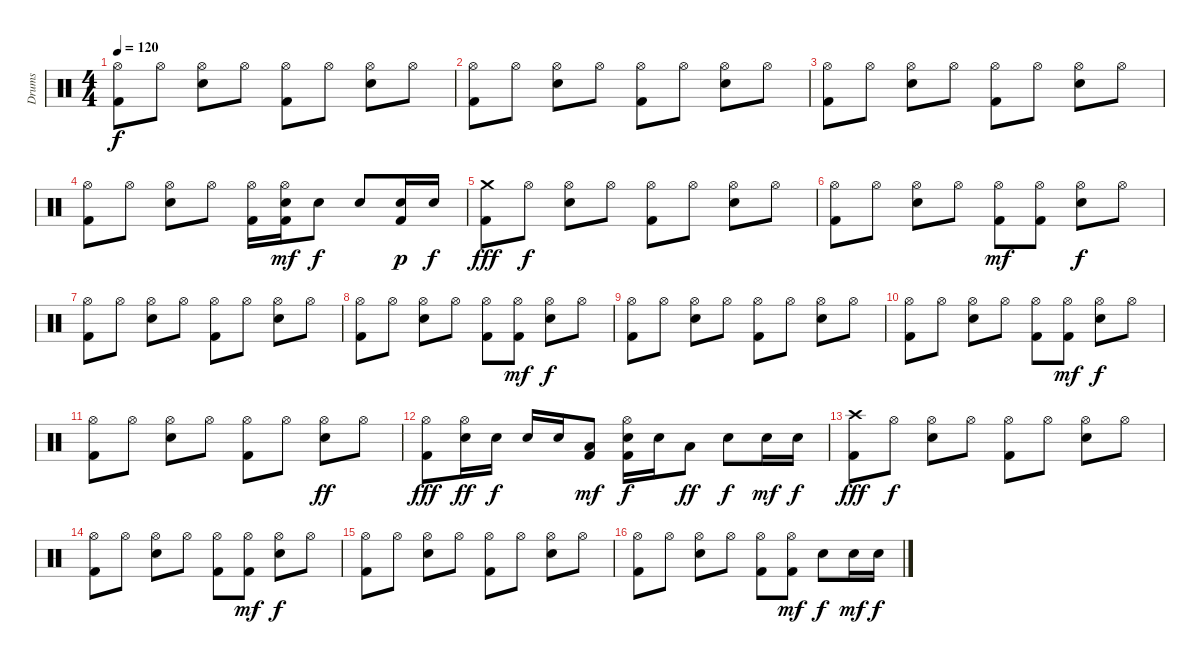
\track ("Drums" "Drums") {instrument percussion}
\staff {score}
\articulation defaults
\ts (4 4)
\tempo 120
\clef neutral
\ks c
("Hi-Hat (open)" "Kick (hit) 2").8{dy f} "Hi-Hat (open)".8 ("Hi-Hat (open)" "Electric Snare (hit)").8 "Hi-Hat (open)".8 ("Hi-Hat (open)" "Kick (hit) 2").8 "Hi-Hat (open)".8 ("Hi-Hat (open)" "Electric Snare (hit)").8 "Hi-Hat (open)".8 |
("Hi-Hat (open)" "Kick (hit) 2").8 "Hi-Hat (open)".8 ("Hi-Hat (open)" "Electric Snare (hit)").8 "Hi-Hat (open)".8 ("Hi-Hat (open)" "Kick (hit) 2").8 "Hi-Hat (open)".8 ("Hi-Hat (open)" "Electric Snare (hit)").8 "Hi-Hat (open)".8 |
("Hi-Hat (open)" "Kick (hit) 2").8 "Hi-Hat (open)".8 ("Hi-Hat (open)" "Electric Snare (hit)").8 "Hi-Hat (open)".8 ("Hi-Hat (open)" "Kick (hit) 2").8 "Hi-Hat (open)".8 ("Hi-Hat (open)" "Electric Snare (hit)").8 "Hi-Hat (open)".8 |
("Hi-Hat (open)" "Kick (hit) 2").8 "Hi-Hat (open)".8 ("Hi-Hat (open)" "Electric Snare (hit)").8 "Hi-Hat (open)".8 ("Hi-Hat (open)" "Kick (hit) 2").16 ("Hi-Hat (open)" "Electric Snare (hit)" "Kick (hit) 2").16{dy mf} "Electric Snare (hit)".8{dy f} "Electric Snare (hit)".8 ("Electric Snare (hit)" "Kick (hit) 2").16{dy p} "Electric Snare (hit)".16{dy f} |
("Crash medium (hit)" "Kick (hit) 2").8{dy fff} "Hi-Hat (open)".8{dy f} ("Hi-Hat (open)" "Electric Snare (hit)").8 "Hi-Hat (open)".8 ("Hi-Hat (open)" "Kick (hit) 2").8 "Hi-Hat (open)".8 ("Hi-Hat (open)" "Electric Snare (hit)").8 "Hi-Hat (open)".8 |
("Hi-Hat (open)" "Kick (hit) 2").8 "Hi-Hat (open)".8 ("Hi-Hat (open)" "Electric Snare (hit)").8 "Hi-Hat (open)".8 ("Hi-Hat (open)" "Kick (hit) 2").8{dy mf} ("Hi-Hat (open)" "Kick (hit) 2").8 ("Hi-Hat (open)" "Electric Snare (hit)").8{dy f} "Hi-Hat (open)".8 |
("Hi-Hat (open)" "Kick (hit) 2").8 "Hi-Hat (open)".8 ("Hi-Hat (open)" "Electric Snare (hit)").8 "Hi-Hat (open)".8 ("Hi-Hat (open)" "Kick (hit) 2").8 "Hi-Hat (open)".8 ("Hi-Hat (open)" "Electric Snare (hit)").8 "Hi-Hat (open)".8 |
("Hi-Hat (open)" "Kick (hit) 2").8 "Hi-Hat (open)".8 ("Hi-Hat (open)" "Electric Snare (hit)").8 "Hi-Hat (open)".8 ("Hi-Hat (open)" "Kick (hit) 2").8 ("Hi-Hat (open)" "Kick (hit) 2").8{dy mf} ("Hi-Hat (open)" "Electric Snare (hit)").8{dy f} "Hi-Hat (open)".8 |
("Hi-Hat (open)" "Kick (hit) 2").8 "Hi-Hat (open)".8 ("Hi-Hat (open)" "Electric Snare (hit)").8 "Hi-Hat (open)".8 ("Hi-Hat (open)" "Kick (hit) 2").8 "Hi-Hat (open)".8 ("Hi-Hat (open)" "Electric Snare (hit)").8 "Hi-Hat (open)".8 |
("Hi-Hat (open)" "Kick (hit) 2").8 "Hi-Hat (open)".8 ("Hi-Hat (open)" "Electric Snare (hit)").8 "Hi-Hat (open)".8 ("Hi-Hat (open)" "Kick (hit) 2").8 ("Hi-Hat (open)" "Kick (hit) 2").8{dy mf} ("Hi-Hat (open)" "Electric Snare (hit)").8{dy f} "Hi-Hat (open)".8 |
("Hi-Hat (open)" "Kick (hit) 2").8 "Hi-Hat (open)".8 ("Hi-Hat (open)" "Electric Snare (hit)").8 "Hi-Hat (open)".8 ("Hi-Hat (open)" "Kick (hit) 2").8 "Hi-Hat (open)".8 ("Hi-Hat (open)" "Electric Snare (hit)").8{dy ff} "Hi-Hat (open)".8 |
("Hi-Hat (open)" "Kick (hit) 2").8{dy fff} ("Hi-Hat (open)" "Electric Snare (hit)").16{dy ff} "Electric Snare (hit)".16{dy f} "Electric Snare (hit)".16 "Electric Snare (hit)".16 ("Low Tom (hit)" "Kick (hit) 2").8{dy mf} ("Hi-Hat (open)" "Electric Snare (hit)" "Kick (hit) 2").16{dy f} "Electric Snare (hit)".16 "Low Tom (hit)".8{dy ff} "Electric Snare (hit)".8{dy f} "Electric Snare (hit)".16{dy mf} "Electric Snare (hit)".16{dy f} |
("Crash high (hit)" "Kick (hit) 2").8{dy fff} "Hi-Hat (open)".8{dy f} ("Hi-Hat (open)" "Electric Snare (hit)").8 "Hi-Hat (open)".8 ("Hi-Hat (open)" "Kick (hit) 2").8 "Hi-Hat (open)".8 ("Hi-Hat (open)" "Electric Snare (hit)").8 "Hi-Hat (open)".8 |
("Hi-Hat (open)" "Kick (hit) 2").8 "Hi-Hat (open)".8 ("Hi-Hat (open)" "Electric Snare (hit)").8 "Hi-Hat (open)".8 ("Hi-Hat (open)" "Kick (hit) 2").8 ("Hi-Hat (open)" "Kick (hit) 2").8{dy mf} ("Hi-Hat (open)" "Electric Snare (hit)").8{dy f} "Hi-Hat (open)".8 |
("Hi-Hat (open)" "Kick (hit) 2").8 "Hi-Hat (open)".8 ("Hi-Hat (open)" "Electric Snare (hit)").8 "Hi-Hat (open)".8 ("Hi-Hat (open)" "Kick (hit) 2").8 "Hi-Hat (open)".8 ("Hi-Hat (open)" "Electric Snare (hit)").8 "Hi-Hat (open)".8 |
("Hi-Hat (open)" "Kick (hit) 2").8 "Hi-Hat (open)".8 ("Hi-Hat (open)" "Electric Snare (hit)").8 "Hi-Hat (open)".8 ("Hi-Hat (open)" "Kick (hit) 2").8 ("Hi-Hat (open)" "Kick (hit) 2").8{dy mf} "Electric Snare (hit)".8{dy f} "Electric Snare (hit)".16{dy mf} "Electric Snare (hit)".16{dy f}
